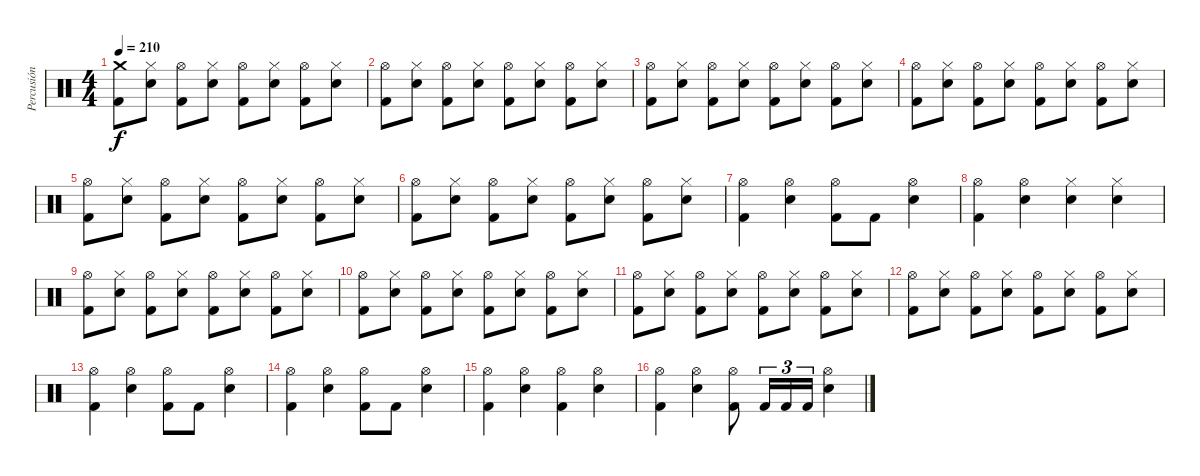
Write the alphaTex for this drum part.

\track ("Percusión" "Percusión") {instrument percussion}
\staff {score}
\articulation defaults
\ts (4 4)
\tempo 210
\clef neutral
\ks c
("Crash medium (hit)" "Kick (hit) 2").8{dy f} ("Hi-Hat (closed)" "Electric Snare (hit)").8 ("Hi-Hat (open)" "Kick (hit) 2").8 ("Hi-Hat (closed)" "Electric Snare (hit)").8 ("Hi-Hat (open)" "Kick (hit) 2").8 ("Hi-Hat (closed)" "Electric Snare (hit)").8 ("Hi-Hat (open)" "Kick (hit) 2").8 ("Hi-Hat (closed)" "Electric Snare (hit)").8 |
("Hi-Hat (open)" "Kick (hit) 2").8 ("Hi-Hat (closed)" "Electric Snare (hit)").8 ("Hi-Hat (open)" "Kick (hit) 2").8 ("Hi-Hat (closed)" "Electric Snare (hit)").8 ("Hi-Hat (open)" "Kick (hit) 2").8 ("Hi-Hat (closed)" "Electric Snare (hit)").8 ("Hi-Hat (open)" "Kick (hit) 2").8 ("Hi-Hat (closed)" "Electric Snare (hit)").8 |
("Hi-Hat (open)" "Kick (hit) 2").8 ("Hi-Hat (closed)" "Electric Snare (hit)").8 ("Hi-Hat (open)" "Kick (hit) 2").8 ("Hi-Hat (closed)" "Electric Snare (hit)").8 ("Hi-Hat (open)" "Kick (hit) 2").8 ("Hi-Hat (closed)" "Electric Snare (hit)").8 ("Hi-Hat (open)" "Kick (hit) 2").8 ("Hi-Hat (closed)" "Electric Snare (hit)").8 |
("Hi-Hat (open)" "Kick (hit) 2").8 ("Hi-Hat (closed)" "Electric Snare (hit)").8 ("Hi-Hat (open)" "Kick (hit) 2").8 ("Hi-Hat (closed)" "Electric Snare (hit)").8 ("Hi-Hat (open)" "Kick (hit) 2").8 ("Hi-Hat (closed)" "Electric Snare (hit)").8 ("Hi-Hat (open)" "Kick (hit) 2").8 ("Hi-Hat (closed)" "Electric Snare (hit)").8 |
("Hi-Hat (open)" "Kick (hit) 2").8 ("Hi-Hat (closed)" "Electric Snare (hit)").8 ("Hi-Hat (open)" "Kick (hit) 2").8 ("Hi-Hat (closed)" "Electric Snare (hit)").8 ("Hi-Hat (open)" "Kick (hit) 2").8 ("Hi-Hat (closed)" "Electric Snare (hit)").8 ("Hi-Hat (open)" "Kick (hit) 2").8 ("Hi-Hat (closed)" "Electric Snare (hit)").8 |
("Hi-Hat (open)" "Kick (hit) 2").8 ("Hi-Hat (closed)" "Electric Snare (hit)").8 ("Hi-Hat (open)" "Kick (hit) 2").8 ("Hi-Hat (closed)" "Electric Snare (hit)").8 ("Hi-Hat (open)" "Kick (hit) 2").8 ("Hi-Hat (closed)" "Electric Snare (hit)").8 ("Hi-Hat (open)" "Kick (hit) 2").8 ("Hi-Hat (closed)" "Electric Snare (hit)").8 |
("Hi-Hat (open)" "Kick (hit) 2").4 ("Hi-Hat (open)" "Electric Snare (hit)").4 ("Hi-Hat (open)" "Kick (hit) 2").8 "Kick (hit) 2".8 ("Hi-Hat (open)" "Electric Snare (hit)").4 |
("Hi-Hat (open)" "Kick (hit) 2").4 ("Hi-Hat (open)" "Electric Snare (hit)").4 ("Hi-Hat (closed)" "Electric Snare (hit)").4 ("Hi-Hat (closed)" "Electric Snare (hit)").4 |
("Hi-Hat (open)" "Kick (hit) 2").8 ("Hi-Hat (closed)" "Electric Snare (hit)").8 ("Hi-Hat (open)" "Kick (hit) 2").8 ("Hi-Hat (closed)" "Electric Snare (hit)").8 ("Hi-Hat (open)" "Kick (hit) 2").8 ("Hi-Hat (closed)" "Electric Snare (hit)").8 ("Hi-Hat (open)" "Kick (hit) 2").8 ("Hi-Hat (closed)" "Electric Snare (hit)").8 |
("Hi-Hat (open)" "Kick (hit) 2").8 ("Hi-Hat (closed)" "Electric Snare (hit)").8 ("Hi-Hat (open)" "Kick (hit) 2").8 ("Hi-Hat (closed)" "Electric Snare (hit)").8 ("Hi-Hat (open)" "Kick (hit) 2").8 ("Hi-Hat (closed)" "Electric Snare (hit)").8 ("Hi-Hat (open)" "Kick (hit) 2").8 ("Hi-Hat (closed)" "Electric Snare (hit)").8 |
("Hi-Hat (open)" "Kick (hit) 2").8 ("Hi-Hat (closed)" "Electric Snare (hit)").8 ("Hi-Hat (open)" "Kick (hit) 2").8 ("Hi-Hat (closed)" "Electric Snare (hit)").8 ("Hi-Hat (open)" "Kick (hit) 2").8 ("Hi-Hat (closed)" "Electric Snare (hit)").8 ("Hi-Hat (open)" "Kick (hit) 2").8 ("Hi-Hat (closed)" "Electric Snare (hit)").8 |
("Hi-Hat (open)" "Kick (hit) 2").8 ("Hi-Hat (closed)" "Electric Snare (hit)").8 ("Hi-Hat (open)" "Kick (hit) 2").8 ("Hi-Hat (closed)" "Electric Snare (hit)").8 ("Hi-Hat (open)" "Kick (hit) 2").8 ("Hi-Hat (closed)" "Electric Snare (hit)").8 ("Hi-Hat (open)" "Kick (hit) 2").8 ("Hi-Hat (closed)" "Electric Snare (hit)").8 |
("Hi-Hat (open)" "Kick (hit) 2").4 ("Hi-Hat (open)" "Electric Snare (hit)").4 ("Hi-Hat (open)" "Kick (hit) 2").8 "Kick (hit) 2".8 ("Hi-Hat (open)" "Electric Snare (hit)").4 |
("Hi-Hat (open)" "Kick (hit) 2").4 ("Hi-Hat (open)" "Electric Snare (hit)").4 ("Hi-Hat (open)" "Kick (hit) 2").8 "Kick (hit) 2".8 ("Hi-Hat (open)" "Electric Snare (hit)").4 |
("Hi-Hat (open)" "Kick (hit) 2").4 ("Hi-Hat (open)" "Electric Snare (hit)").4 ("Hi-Hat (open)" "Kick (hit) 2").4 ("Hi-Hat (open)" "Electric Snare (hit)").4 |
("Hi-Hat (open)" "Kick (hit) 2").4 ("Hi-Hat (open)" "Electric Snare (hit)").4 ("Hi-Hat (open)" "Kick (hit) 2").8 "Kick (hit) 2".16{tu (3 2)} "Kick (hit) 2".16{tu (3 2)} "Kick (hit) 2".16{tu (3 2)} ("Hi-Hat (open)" "Electric Snare (hit)").4
